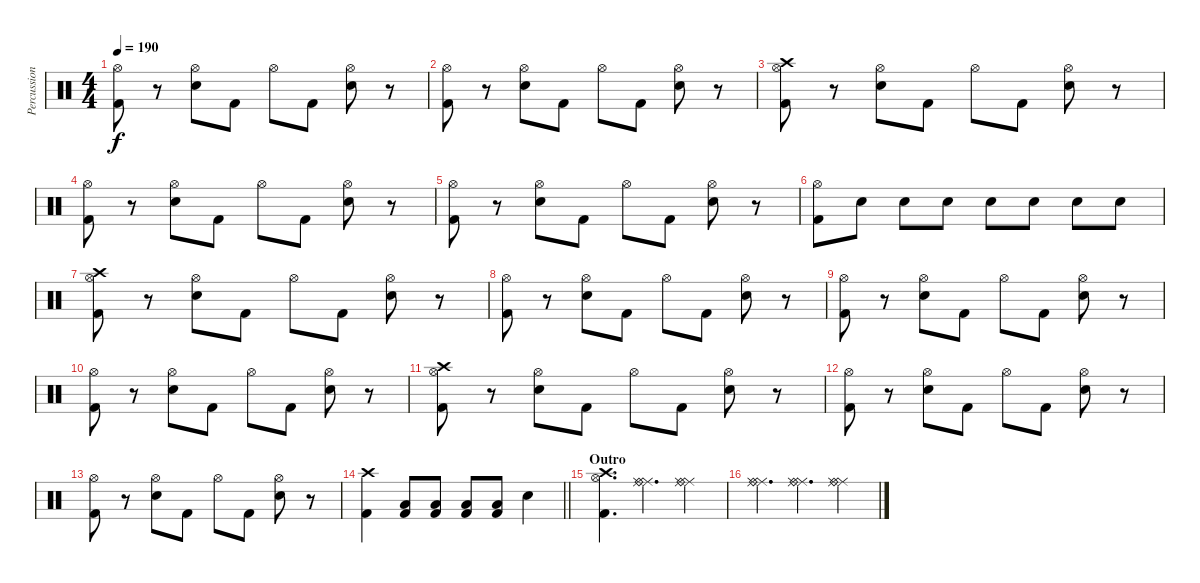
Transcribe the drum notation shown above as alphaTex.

\track ("Percussion" "Percussion") {instrument percussion}
\staff {score}
\articulation defaults
\ts (4 4)
\tempo 190
\clef neutral
\ks c
("Hi-Hat (open)" "Kick (hit) 2").8{dy f} r.8 ("Hi-Hat (open)" "Snare (hit) 2").8 "Kick (hit) 2".8 "Hi-Hat (open)".8 "Kick (hit) 2".8 ("Hi-Hat (open)" "Snare (hit) 2").8 r.8 |
("Hi-Hat (open)" "Kick (hit) 2").8 r.8 ("Hi-Hat (open)" "Snare (hit) 2").8 "Kick (hit) 2".8 "Hi-Hat (open)".8 "Kick (hit) 2".8 ("Hi-Hat (open)" "Snare (hit) 2").8 r.8 |
("Hi-Hat (open)" "Crash high (hit)" "Kick (hit) 2").8 r.8 ("Hi-Hat (open)" "Snare (hit) 2").8 "Kick (hit) 2".8 "Hi-Hat (open)".8 "Kick (hit) 2".8 ("Hi-Hat (open)" "Snare (hit) 2").8 r.8 |
("Hi-Hat (open)" "Kick (hit) 2").8 r.8 ("Hi-Hat (open)" "Snare (hit) 2").8 "Kick (hit) 2".8 "Hi-Hat (open)".8 "Kick (hit) 2".8 ("Hi-Hat (open)" "Snare (hit) 2").8 r.8 |
("Hi-Hat (open)" "Kick (hit) 2").8 r.8 ("Hi-Hat (open)" "Snare (hit) 2").8 "Kick (hit) 2".8 "Hi-Hat (open)".8 "Kick (hit) 2".8 ("Hi-Hat (open)" "Snare (hit) 2").8 r.8 |
("Hi-Hat (open)" "Kick (hit) 2").8 "Snare (hit) 2".8 "Snare (hit) 2".8 "Snare (hit) 2".8 "Snare (hit) 2".8 "Snare (hit) 2".8 "Snare (hit) 2".8 "Snare (hit) 2".8 |
("Hi-Hat (open)" "Crash high (hit)" "Kick (hit) 2").8 r.8 ("Hi-Hat (open)" "Snare (hit) 2").8 "Kick (hit) 2".8 "Hi-Hat (open)".8 "Kick (hit) 2".8 ("Hi-Hat (open)" "Snare (hit) 2").8 r.8 |
("Hi-Hat (open)" "Kick (hit) 2").8 r.8 ("Hi-Hat (open)" "Snare (hit) 2").8 "Kick (hit) 2".8 "Hi-Hat (open)".8 "Kick (hit) 2".8 ("Hi-Hat (open)" "Snare (hit) 2").8 r.8 |
("Hi-Hat (open)" "Kick (hit) 2").8 r.8 ("Hi-Hat (open)" "Snare (hit) 2").8 "Kick (hit) 2".8 "Hi-Hat (open)".8 "Kick (hit) 2".8 ("Hi-Hat (open)" "Snare (hit) 2").8 r.8 |
("Hi-Hat (open)" "Kick (hit) 2").8 r.8 ("Hi-Hat (open)" "Snare (hit) 2").8 "Kick (hit) 2".8 "Hi-Hat (open)".8 "Kick (hit) 2".8 ("Hi-Hat (open)" "Snare (hit) 2").8 r.8 |
("Hi-Hat (open)" "Crash high (hit)" "Kick (hit) 2").8 r.8 ("Hi-Hat (open)" "Snare (hit) 2").8 "Kick (hit) 2".8 "Hi-Hat (open)".8 "Kick (hit) 2".8 ("Hi-Hat (open)" "Snare (hit) 2").8 r.8 |
("Hi-Hat (open)" "Kick (hit) 2").8 r.8 ("Hi-Hat (open)" "Snare (hit) 2").8 "Kick (hit) 2".8 "Hi-Hat (open)".8 "Kick (hit) 2".8 ("Hi-Hat (open)" "Snare (hit) 2").8 r.8 |
("Hi-Hat (open)" "Kick (hit) 2").8 r.8 ("Hi-Hat (open)" "Snare (hit) 2").8 "Kick (hit) 2".8 "Hi-Hat (open)".8 "Kick (hit) 2".8 ("Hi-Hat (open)" "Snare (hit) 2").8 r.8 |
\barLineRight lightlight
("Crash high (hit)" "Kick (hit) 2").4 ("Kick (hit) 2" "Low Tom (hit)").8 ("Kick (hit) 2" "Low Tom (hit)").8 ("Kick (hit) 2" "Low Tom (hit)").8 ("Kick (hit) 2" "Low Tom (hit)").8 "Snare (hit) 2".4 |
\section ("" "Outro")
("Kick (hit) 2" "Hi-Hat (open)" "Crash high (hit)").4{d} ("Ride (middle)" "Ride (middle)" "Ride (bell)").4{d} ("Ride (middle)" "Ride (middle)" "Ride (bell)").4 |
("Ride (middle)" "Ride (middle)" "Ride (bell)").4{d} ("Ride (middle)" "Ride (middle)" "Ride (bell)").4{d} ("Ride (middle)" "Ride (middle)" "Ride (bell)").4
